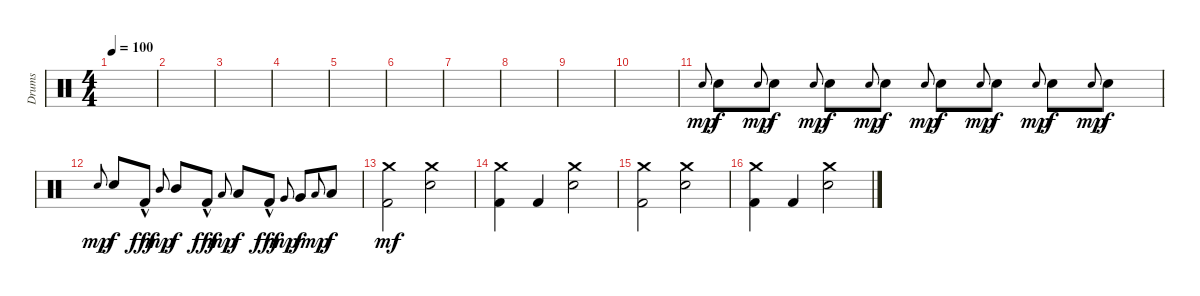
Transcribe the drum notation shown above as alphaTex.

\track ("Drums" "Drums") {instrument percussion}
\staff {score}
\articulation defaults
\ts (4 4)
\tempo 100
\clef neutral
\ks aminor
|
|
|
|
|
|
|
|
|
|
"Snare (hit) 2".8{gr onbeat dy mp} "Snare (hit) 2".8{dy f} "Snare (hit) 2".8{gr onbeat dy mp} "Snare (hit) 2".8{dy f} "Snare (hit) 2".8{gr onbeat dy mp} "Snare (hit) 2".8{dy f} "Snare (hit) 2".8{gr onbeat dy mp} "Snare (hit) 2".8{dy f} "Snare (hit) 2".8{gr onbeat dy mp} "Snare (hit) 2".8{dy f} "Snare (hit) 2".8{gr onbeat dy mp} "Snare (hit) 2".8{dy f} "Snare (hit) 2".8{gr onbeat dy mp} "Snare (hit) 2".8{dy f} "Snare (hit) 2".8{gr onbeat dy mp} "Snare (hit) 2".8{dy f} |
"Snare (hit) 2".8{gr onbeat dy mp} "Snare (hit) 2".8{dy f} "Kick (hit) 2"{hac}.8{dy fff} "Mid Tom (hit)".8{gr onbeat dy mp} "Mid Tom (hit)".8{dy f} "Kick (hit) 2"{hac}.8{dy fff} "Low Tom (hit)".8{gr onbeat dy mp} "Low Tom (hit)".8{dy f} "Kick (hit) 2"{hac}.8{dy fff} "Very Low Tom (hit)".8{gr onbeat dy mp} "Very Low Tom (hit)".8{dy f} "Low Floor Tom (hit)".8{gr onbeat dy mp} "Low Floor Tom (hit)".8{dy f} |
("Crash medium (hit)" "Kick (hit) 2").2{dy mf} ("Crash medium (hit)" "Snare (hit) 2").2 |
("Crash medium (hit)" "Kick (hit) 2").4 "Kick (hit) 2".4 ("Crash medium (hit)" "Snare (hit) 2").2 |
("Crash medium (hit)" "Kick (hit) 2").2 ("Crash medium (hit)" "Snare (hit) 2").2 |
("Crash medium (hit)" "Kick (hit) 2").4 "Kick (hit) 2".4 ("Crash medium (hit)" "Snare (hit) 2").2
